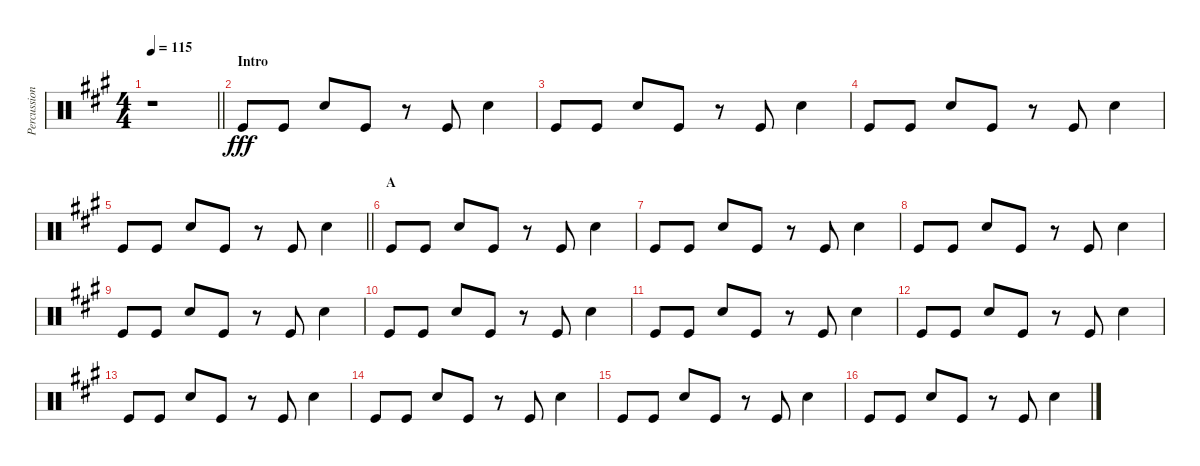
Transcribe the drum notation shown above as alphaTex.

\track ("Percussioni" "Percussion") {instrument percussion}
\staff {score}
\articulation defaults
\ts (4 4)
\tempo 115
\clef neutral
\barLineRight lightlight
\ks a
r.1{dy fff} |
\section ("" "Intro")
"Kick (hit)".8 "Kick (hit)".8 "Snare (hit) 2".8 "Kick (hit)".8 r.8 "Kick (hit)".8 "Snare (hit) 2".4 |
"Kick (hit)".8 "Kick (hit)".8 "Snare (hit) 2".8 "Kick (hit)".8 r.8 "Kick (hit)".8 "Snare (hit) 2".4 |
"Kick (hit)".8 "Kick (hit)".8 "Snare (hit) 2".8 "Kick (hit)".8 r.8 "Kick (hit)".8 "Snare (hit) 2".4 |
\barLineRight lightlight "Kick (hit)".8 "Kick (hit)".8 "Snare (hit) 2".8 "Kick (hit)".8
r.8 "Kick (hit)".8 "Snare (hit) 2".4 |
\section ("" "A")
"Kick (hit)".8 "Kick (hit)".8 "Snare (hit) 2".8 "Kick (hit)".8 r.8 "Kick (hit)".8 "Snare (hit) 2".4 |
"Kick (hit)".8 "Kick (hit)".8 "Snare (hit) 2".8 "Kick (hit)".8 r.8 "Kick (hit)".8 "Snare (hit) 2".4 |
"Kick (hit)".8 "Kick (hit)".8 "Snare (hit) 2".8 "Kick (hit)".8 r.8 "Kick (hit)".8 "Snare (hit) 2".4 |
"Kick (hit)".8 "Kick (hit)".8 "Snare (hit) 2".8 "Kick (hit)".8 r.8 "Kick (hit)".8 "Snare (hit) 2".4 |
"Kick (hit)".8 "Kick (hit)".8 "Snare (hit) 2".8 "Kick (hit)".8 r.8 "Kick (hit)".8 "Snare (hit) 2".4 |
"Kick (hit)".8 "Kick (hit)".8 "Snare (hit) 2".8 "Kick (hit)".8 r.8 "Kick (hit)".8 "Snare (hit) 2".4 |
"Kick (hit)".8 "Kick (hit)".8 "Snare (hit) 2".8 "Kick (hit)".8 r.8 "Kick (hit)".8 "Snare (hit) 2".4 |
"Kick (hit)".8 "Kick (hit)".8 "Snare (hit) 2".8 "Kick (hit)".8 r.8 "Kick (hit)".8 "Snare (hit) 2".4 |
"Kick (hit)".8 "Kick (hit)".8 "Snare (hit) 2".8 "Kick (hit)".8 r.8 "Kick (hit)".8 "Snare (hit) 2".4 |
"Kick (hit)".8 "Kick (hit)".8 "Snare (hit) 2".8 "Kick (hit)".8 r.8 "Kick (hit)".8 "Snare (hit) 2".4 |
"Kick (hit)".8 "Kick (hit)".8 "Snare (hit) 2".8 "Kick (hit)".8 r.8 "Kick (hit)".8 "Snare (hit) 2".4
